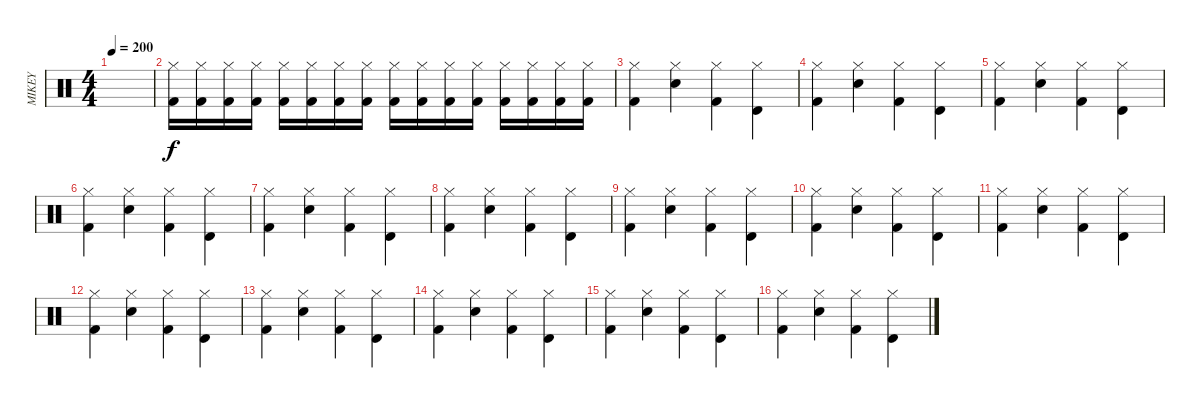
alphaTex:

\track ("MIKEY" "MIKEY") {instrument percussion}
\staff {score}
\articulation defaults
\ts (4 4)
\tempo 200
\clef neutral
\ks c
|
("Hi-Hat (closed)" "Kick (hit) 2").16 ("Hi-Hat (closed)" "Kick (hit) 2").16 ("Hi-Hat (closed)" "Kick (hit) 2").16 ("Hi-Hat (closed)" "Kick (hit) 2").16 ("Hi-Hat (closed)" "Kick (hit) 2").16 ("Hi-Hat (closed)" "Kick (hit) 2").16 ("Hi-Hat (closed)" "Kick (hit) 2").16 ("Hi-Hat (closed)" "Kick (hit) 2").16 ("Hi-Hat (closed)" "Kick (hit) 2").16 ("Hi-Hat (closed)" "Kick (hit) 2").16 ("Hi-Hat (closed)" "Kick (hit) 2").16 ("Hi-Hat (closed)" "Kick (hit) 2").16 ("Hi-Hat (closed)" "Kick (hit) 2").16 ("Hi-Hat (closed)" "Kick (hit) 2").16 ("Hi-Hat (closed)" "Kick (hit) 2").16 ("Hi-Hat (closed)" "Kick (hit) 2").16 |
("Hi-Hat (closed)" "Kick (hit) 2").4 ("Hi-Hat (closed)" "Snare (hit) 2").4 ("Hi-Hat (closed)" "Kick (hit) 2").4 ("Hi-Hat (closed)" "Timbale high (hit)").4 |
("Hi-Hat (closed)" "Kick (hit) 2").4 ("Hi-Hat (closed)" "Snare (hit) 2").4 ("Hi-Hat (closed)" "Kick (hit) 2").4 ("Hi-Hat (closed)" "Timbale high (hit)").4 |
("Hi-Hat (closed)" "Kick (hit) 2").4 ("Hi-Hat (closed)" "Snare (hit) 2").4 ("Hi-Hat (closed)" "Kick (hit) 2").4 ("Hi-Hat (closed)" "Timbale high (hit)").4 |
("Hi-Hat (closed)" "Kick (hit) 2").4 ("Hi-Hat (closed)" "Snare (hit) 2").4 ("Hi-Hat (closed)" "Kick (hit) 2").4 ("Hi-Hat (closed)" "Timbale high (hit)").4 |
("Hi-Hat (closed)" "Kick (hit) 2").4 ("Hi-Hat (closed)" "Snare (hit) 2").4 ("Hi-Hat (closed)" "Kick (hit) 2").4 ("Hi-Hat (closed)" "Timbale high (hit)").4 |
("Hi-Hat (closed)" "Kick (hit) 2").4 ("Hi-Hat (closed)" "Snare (hit) 2").4 ("Hi-Hat (closed)" "Kick (hit) 2").4 ("Hi-Hat (closed)" "Timbale high (hit)").4 |
("Hi-Hat (closed)" "Kick (hit) 2").4 ("Hi-Hat (closed)" "Snare (hit) 2").4 ("Hi-Hat (closed)" "Kick (hit) 2").4 ("Hi-Hat (closed)" "Timbale high (hit)").4 |
("Hi-Hat (closed)" "Kick (hit) 2").4 ("Hi-Hat (closed)" "Snare (hit) 2").4 ("Hi-Hat (closed)" "Kick (hit) 2").4 ("Hi-Hat (closed)" "Timbale high (hit)").4 |
("Hi-Hat (closed)" "Kick (hit) 2").4 ("Hi-Hat (closed)" "Snare (hit) 2").4 ("Hi-Hat (closed)" "Kick (hit) 2").4 ("Hi-Hat (closed)" "Timbale high (hit)").4 |
("Hi-Hat (closed)" "Kick (hit) 2").4 ("Hi-Hat (closed)" "Snare (hit) 2").4 ("Hi-Hat (closed)" "Kick (hit) 2").4 ("Hi-Hat (closed)" "Timbale high (hit)").4 |
("Hi-Hat (closed)" "Kick (hit) 2").4 ("Hi-Hat (closed)" "Snare (hit) 2").4 ("Hi-Hat (closed)" "Kick (hit) 2").4 ("Hi-Hat (closed)" "Timbale high (hit)").4 |
("Hi-Hat (closed)" "Kick (hit) 2").4 ("Hi-Hat (closed)" "Snare (hit) 2").4 ("Hi-Hat (closed)" "Kick (hit) 2").4 ("Hi-Hat (closed)" "Timbale high (hit)").4 |
("Hi-Hat (closed)" "Kick (hit) 2").4 ("Hi-Hat (closed)" "Snare (hit) 2").4 ("Hi-Hat (closed)" "Kick (hit) 2").4 ("Hi-Hat (closed)" "Timbale high (hit)").4 |
("Hi-Hat (closed)" "Kick (hit) 2").4 ("Hi-Hat (closed)" "Snare (hit) 2").4 ("Hi-Hat (closed)" "Kick (hit) 2").4 ("Hi-Hat (closed)" "Timbale high (hit)").4
